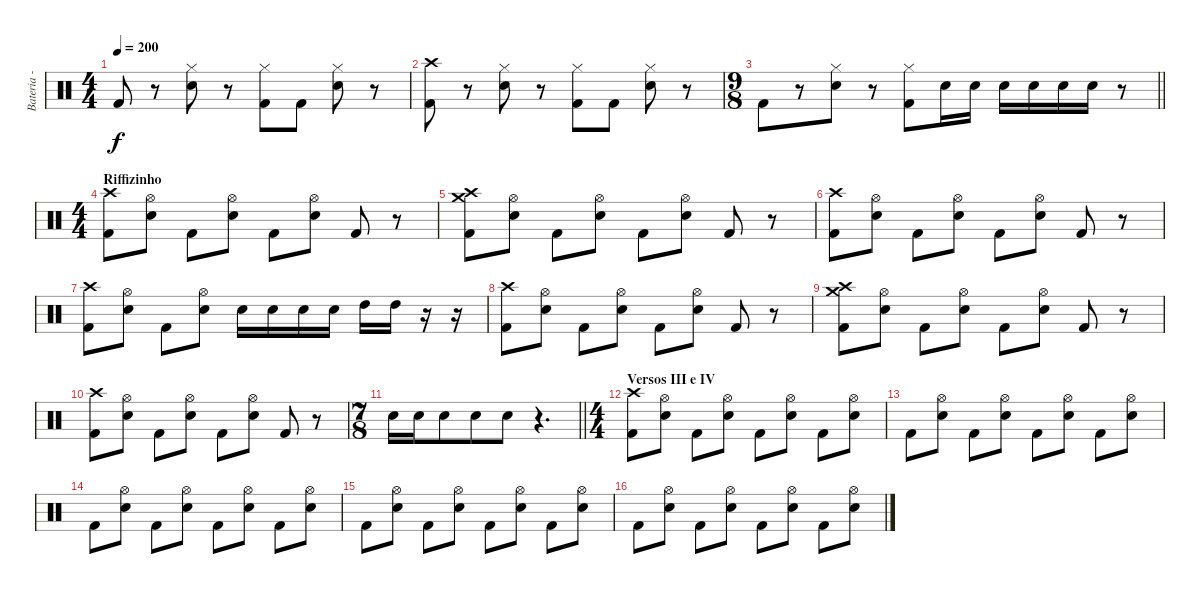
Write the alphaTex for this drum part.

\track ("Bateria - Larzon" "Bateria - ") {instrument percussion}
\staff {score}
\articulation defaults
\ts (4 4)
\tempo 200
\clef neutral
\ks c "Kick (hit) 2".8{dy f}
r.8 ("Electric Snare (hit)" "Hi-Hat (closed)").8 r.8 ("Kick (hit) 2" "Hi-Hat (closed)").8 "Kick (hit) 2".8 ("Electric Snare (hit)" "Hi-Hat (closed)").8 r.8 |
("Kick (hit) 2" "Crash high (hit)").8 r.8 ("Electric Snare (hit)" "Hi-Hat (closed)").8 r.8 ("Kick (hit) 2" "Hi-Hat (closed)").8 "Kick (hit) 2".8 ("Electric Snare (hit)" "Hi-Hat (closed)").8 r.8 |
\ts (9 8)
\barLineRight lightlight "Kick (hit) 2".8
r.8 ("Electric Snare (hit)" "Hi-Hat (closed)").8 r.8 ("Kick (hit) 2" "Hi-Hat (closed)").8 "Electric Snare (hit)".16 "Electric Snare (hit)".16 "Electric Snare (hit)".16 "Electric Snare (hit)".16 "Electric Snare (hit)".16 "Electric Snare (hit)".16 r.8 |
\ts (4 4)
\section ("" "Riffizinho")
("Kick (hit) 2" "Crash high (hit)").8 ("Hi-Hat (open)" "Electric Snare (hit)").8 "Kick (hit) 2".8 ("Hi-Hat (open)" "Electric Snare (hit)").8 "Kick (hit) 2".8 ("Hi-Hat (open)" "Electric Snare (hit)").8 "Kick (hit) 2".8 r.8 |
("Kick (hit) 2" "Crash high (hit)" "Crash medium (hit)").8 ("Hi-Hat (open)" "Electric Snare (hit)").8 "Kick (hit) 2".8 ("Hi-Hat (open)" "Electric Snare (hit)").8 "Kick (hit) 2".8 ("Hi-Hat (open)" "Electric Snare (hit)").8 "Kick (hit) 2".8 r.8 |
("Kick (hit) 2" "Crash high (hit)").8 ("Hi-Hat (open)" "Electric Snare (hit)").8 "Kick (hit) 2".8 ("Hi-Hat (open)" "Electric Snare (hit)").8 "Kick (hit) 2".8 ("Hi-Hat (open)" "Electric Snare (hit)").8 "Kick (hit) 2".8 r.8 |
("Kick (hit) 2" "Crash high (hit)").8 ("Hi-Hat (open)" "Electric Snare (hit)").8 "Kick (hit) 2".8 ("Hi-Hat (open)" "Electric Snare (hit)").8 "Electric Snare (hit)".16 "Electric Snare (hit)".16 "Electric Snare (hit)".16 "Electric Snare (hit)".16 "High Tom (hit)".16 "High Tom (hit)".16 r.16 r.16 |
("Kick (hit) 2" "Crash high (hit)").8 ("Hi-Hat (open)" "Electric Snare (hit)").8 "Kick (hit) 2".8 ("Hi-Hat (open)" "Electric Snare (hit)").8 "Kick (hit) 2".8 ("Hi-Hat (open)" "Electric Snare (hit)").8 "Kick (hit) 2".8 r.8 |
("Kick (hit) 2" "Crash high (hit)" "Crash medium (hit)").8 ("Hi-Hat (open)" "Electric Snare (hit)").8 "Kick (hit) 2".8 ("Hi-Hat (open)" "Electric Snare (hit)").8 "Kick (hit) 2".8 ("Hi-Hat (open)" "Electric Snare (hit)").8 "Kick (hit) 2".8 r.8 |
("Kick (hit) 2" "Crash high (hit)").8 ("Hi-Hat (open)" "Electric Snare (hit)").8 "Kick (hit) 2".8 ("Hi-Hat (open)" "Electric Snare (hit)").8 "Kick (hit) 2".8 ("Hi-Hat (open)" "Electric Snare (hit)").8 "Kick (hit) 2".8 r.8 |
\ts (7 8)
\barLineRight lightlight "Electric Snare (hit)".16 "Electric Snare (hit)".16 "Electric Snare (hit)".8 "Electric Snare (hit)".8 "Electric Snare (hit)".8
r.4{d} |
\ts (4 4)
\section ("" "Versos III e IV")
("Kick (hit) 2" "Crash high (hit)").8 ("Electric Snare (hit)" "Hi-Hat (open)").8 "Kick (hit) 2".8 ("Electric Snare (hit)" "Hi-Hat (open)").8 "Kick (hit) 2".8 ("Electric Snare (hit)" "Hi-Hat (open)").8 "Kick (hit) 2".8 ("Electric Snare (hit)" "Hi-Hat (open)").8 |
"Kick (hit) 2".8 ("Hi-Hat (open)" "Electric Snare (hit)").8 "Kick (hit) 2".8 ("Hi-Hat (open)" "Electric Snare (hit)").8 "Kick (hit) 2".8 ("Hi-Hat (open)" "Electric Snare (hit)").8 "Kick (hit) 2".8 ("Hi-Hat (open)" "Electric Snare (hit)").8 |
"Kick (hit) 2".8 ("Hi-Hat (open)" "Electric Snare (hit)").8 "Kick (hit) 2".8 ("Hi-Hat (open)" "Electric Snare (hit)").8 "Kick (hit) 2".8 ("Hi-Hat (open)" "Electric Snare (hit)").8 "Kick (hit) 2".8 ("Hi-Hat (open)" "Electric Snare (hit)").8 |
"Kick (hit) 2".8 ("Hi-Hat (open)" "Electric Snare (hit)").8 "Kick (hit) 2".8 ("Hi-Hat (open)" "Electric Snare (hit)").8 "Kick (hit) 2".8 ("Hi-Hat (open)" "Electric Snare (hit)").8 "Kick (hit) 2".8 ("Hi-Hat (open)" "Electric Snare (hit)").8 |
"Kick (hit) 2".8 ("Hi-Hat (open)" "Electric Snare (hit)").8 "Kick (hit) 2".8 ("Hi-Hat (open)" "Electric Snare (hit)").8 "Kick (hit) 2".8 ("Hi-Hat (open)" "Electric Snare (hit)").8 "Kick (hit) 2".8 ("Hi-Hat (open)" "Electric Snare (hit)").8
